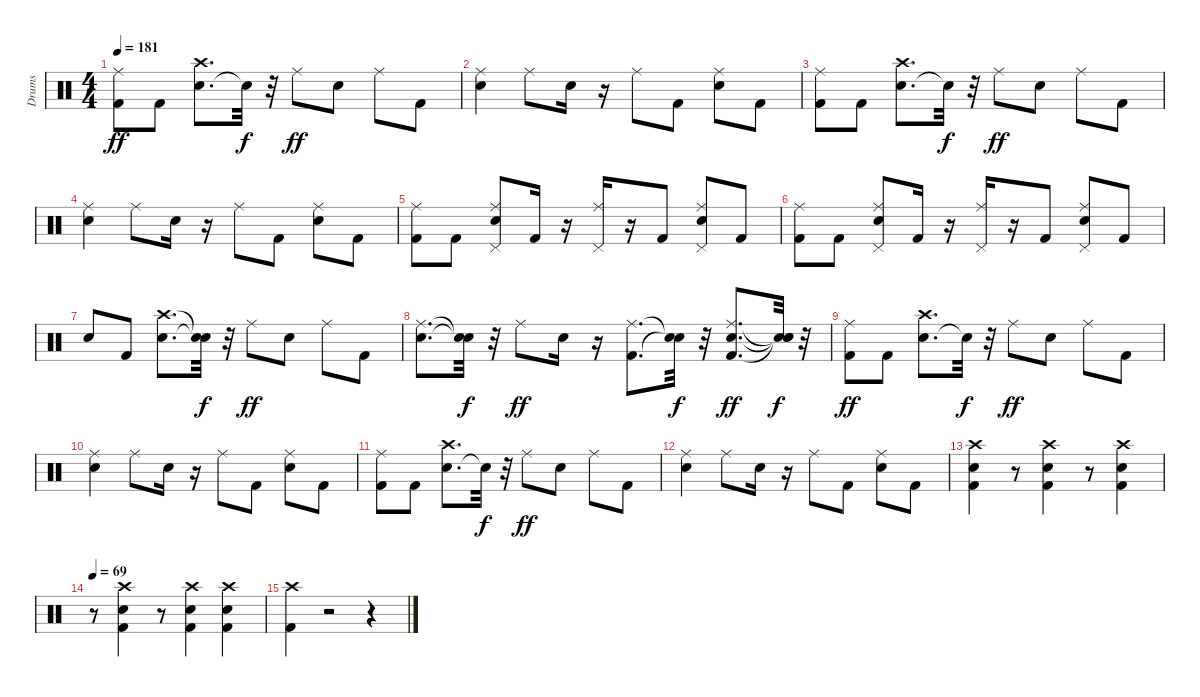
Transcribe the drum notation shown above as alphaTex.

\track ("Drums" "Drums") {instrument percussion}
\staff {score}
\articulation defaults
\ts (4 4)
\tempo 181
\clef neutral
\ks c
("Kick (hit) 2" "Ride (middle)").8{dy ff} "Kick (hit) 2".8 ("Snare (hit) 2" "Crash high (hit)").8{d} "Snare (hit)"{t}.32{dy f} r.32 "Ride (middle)".8{dy ff} "Snare (hit) 2".8 "Ride (middle)".8 "Kick (hit) 2".8 |
("Snare (hit) 2" "Ride (middle)").4 "Ride (middle)".8 "Snare (hit) 2".16 r.16 "Ride (middle)".8 "Kick (hit) 2".8 ("Snare (hit) 2" "Ride (middle)").8 "Kick (hit) 2".8 |
("Kick (hit) 2" "Ride (middle)").8 "Kick (hit) 2".8 ("Snare (hit) 2" "Crash high (hit)").8{d} "Snare (hit)"{t}.32{dy f} r.32 "Ride (middle)".8{dy ff} "Snare (hit) 2".8 "Ride (middle)".8 "Kick (hit) 2".8 |
("Snare (hit) 2" "Ride (middle)").4 "Ride (middle)".8 "Snare (hit) 2".16 r.16 "Ride (middle)".8 "Kick (hit) 2".8 ("Snare (hit) 2" "Ride (middle)").8 "Kick (hit) 2".8 |
("Kick (hit) 2" "Ride (middle)").8 "Kick (hit) 2".8 ("Snare (hit) 2" "Pedal Hi-Hat (hit)" "Ride (middle)").8 "Kick (hit) 2".16 r.16 ("Pedal Hi-Hat (hit)" "Ride (middle)").16 r.16 "Kick (hit) 2".8 ("Snare (hit) 2" "Pedal Hi-Hat (hit)" "Ride (middle)").8 "Kick (hit) 2".8 |
("Kick (hit) 2" "Ride (middle)").8 "Kick (hit) 2".8 ("Snare (hit) 2" "Pedal Hi-Hat (hit)" "Ride (middle)").8 "Kick (hit) 2".16 r.16 ("Pedal Hi-Hat (hit)" "Ride (middle)").16 r.16 "Kick (hit) 2".8 ("Snare (hit) 2" "Pedal Hi-Hat (hit)" "Ride (middle)").8 "Kick (hit) 2".8 |
"Snare (hit) 2".8 "Kick (hit) 2".8 ("Snare (hit) 2" "Crash high (hit)").8{d} ("Snare (hit)"{t} "Snare (hit)"{t}).32{dy f} r.32 "Ride (middle)".8{dy ff} "Snare (hit) 2".8 "Ride (middle)".8 "Kick (hit) 2".8 |
("Snare (hit) 2" "Ride (middle)").8{d} ("Snare (hit)"{t} "Snare (hit)"{t}).32{dy f} r.32 "Ride (middle)".8{dy ff} "Snare (hit) 2".16 r.16 ("Kick (hit) 2" "Ride (middle)").8{d} ("Snare (hit)"{t} "Snare (hit)"{t}).32{dy f} r.32 ("Kick (hit) 2" "Snare (hit) 2" "Ride (middle)").8{d dy ff} ("Snare (hit)"{t} "Snare (hit)"{t} "Snare (hit)"{t}).32{dy f} r.32 |
("Kick (hit) 2" "Ride (middle)").8{dy ff} "Kick (hit) 2".8 ("Snare (hit) 2" "Crash high (hit)").8{d} "Snare (hit)"{t}.32{dy f} r.32 "Ride (middle)".8{dy ff} "Snare (hit) 2".8 "Ride (middle)".8 "Kick (hit) 2".8 |
("Snare (hit) 2" "Ride (middle)").4 "Ride (middle)".8 "Snare (hit) 2".16 r.16 "Ride (middle)".8 "Kick (hit) 2".8 ("Snare (hit) 2" "Ride (middle)").8 "Kick (hit) 2".8 |
("Kick (hit) 2" "Ride (middle)").8 "Kick (hit) 2".8 ("Snare (hit) 2" "Crash high (hit)").8{d} "Snare (hit)"{t}.32{dy f} r.32 "Ride (middle)".8{dy ff} "Snare (hit) 2".8 "Ride (middle)".8 "Kick (hit) 2".8 |
("Snare (hit) 2" "Ride (middle)").4 "Ride (middle)".8 "Snare (hit) 2".16 r.16 "Ride (middle)".8 "Kick (hit) 2".8 ("Snare (hit) 2" "Ride (middle)").8 "Kick (hit) 2".8 |
("Snare (hit) 2" "Kick (hit) 2" "Crash high (hit)").4 r.8 ("Snare (hit) 2" "Kick (hit) 2" "Crash high (hit)").4 r.8 ("Snare (hit) 2" "Kick (hit) 2" "Crash high (hit)").4 |
\tempo 69
r.8 ("Kick (hit) 2" "Snare (hit) 2" "Crash high (hit)").4 r.8 ("Snare (hit) 2" "Kick (hit) 2" "Crash high (hit)").4 ("Snare (hit) 2" "Kick (hit) 2" "Crash high (hit)").4 |
("Kick (hit) 2" "Crash high (hit)").4 r.2 r.4
